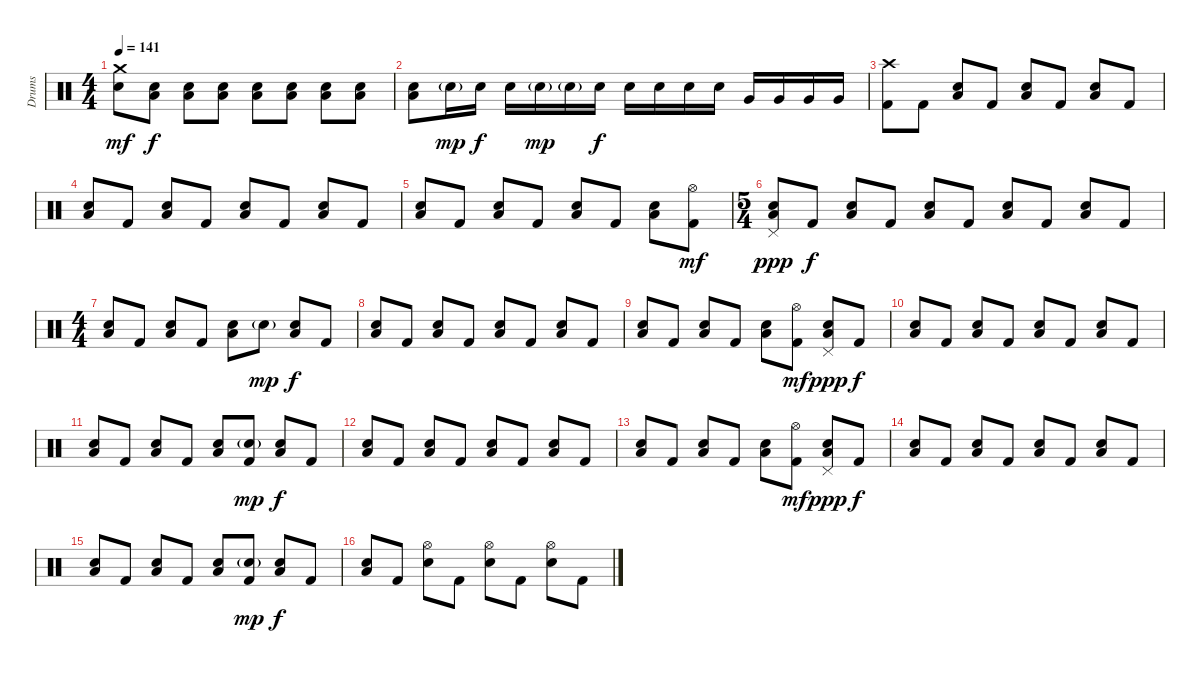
\track ("Drums" "Drums") {instrument percussion}
\staff {score}
\articulation defaults
\ts (4 4)
\tempo 141
\clef neutral
\ks c
("Crash medium (hit)" "Snare (hit) 2").8{dy mf} ("Snare (hit) 2" "Low Floor Tom (hit)").8{dy f} ("Snare (hit) 2" "Low Floor Tom (hit)").8 ("Snare (hit) 2" "Low Floor Tom (hit)").8 ("Snare (hit) 2" "Low Floor Tom (hit)").8 ("Snare (hit) 2" "Low Floor Tom (hit)").8 ("Snare (hit) 2" "Low Floor Tom (hit)").8 ("Snare (hit) 2" "Low Floor Tom (hit)").8 |
("Snare (hit) 2" "Low Floor Tom (hit)").8 "Snare (hit) 2"{g}.16{dy mp} "Snare (hit) 2".16{dy f} "Snare (hit) 2".16 "Snare (hit) 2"{g}.16{dy mp} "Snare (hit) 2"{g}.16 "Snare (hit) 2".16{dy f} "Snare (hit) 2".16 "Snare (hit) 2".16 "Snare (hit) 2".16 "Snare (hit) 2".16 "Very Low Tom (hit)".16 "Very Low Tom (hit)".16 "Very Low Tom (hit)".16 "Very Low Tom (hit)".16 |
("Crash high (hit)" "Kick (hit) 2").8 "Kick (hit) 2".8 ("Snare (hit) 2" "Low Floor Tom (hit)").8 "Kick (hit) 2".8 ("Snare (hit) 2" "Low Floor Tom (hit)").8 "Kick (hit) 2".8 ("Snare (hit) 2" "Low Floor Tom (hit)").8 "Kick (hit) 2".8 |
("Snare (hit) 2" "Low Floor Tom (hit)").8 "Kick (hit) 2".8 ("Snare (hit) 2" "Low Floor Tom (hit)").8 "Kick (hit) 2".8 ("Snare (hit) 2" "Low Floor Tom (hit)").8 "Kick (hit) 2".8 ("Snare (hit) 2" "Low Floor Tom (hit)").8 "Kick (hit) 2".8 |
("Snare (hit) 2" "Low Floor Tom (hit)").8 "Kick (hit) 2".8 ("Snare (hit) 2" "Low Floor Tom (hit)").8 "Kick (hit) 2".8 ("Snare (hit) 2" "Low Floor Tom (hit)").8 "Kick (hit) 2".8 ("Snare (hit) 2" "Low Floor Tom (hit)").8 ("Hi-Hat (open)" "Kick (hit) 2").8{dy mf} |
\ts (5 4)
("Pedal Hi-Hat (hit)" "Snare (hit) 2" "Low Floor Tom (hit)").8{dy ppp} "Kick (hit) 2".8{dy f} ("Snare (hit) 2" "Low Floor Tom (hit)").8 "Kick (hit) 2".8 ("Snare (hit) 2" "Low Floor Tom (hit)").8 "Kick (hit) 2".8 ("Snare (hit) 2" "Low Floor Tom (hit)").8 "Kick (hit) 2".8 ("Snare (hit) 2" "Low Floor Tom (hit)").8 "Kick (hit) 2".8 |
\ts (4 4)
("Snare (hit) 2" "Low Floor Tom (hit)").8 "Kick (hit) 2".8 ("Snare (hit) 2" "Low Floor Tom (hit)").8 "Kick (hit) 2".8 ("Snare (hit) 2" "Low Floor Tom (hit)").8 "Snare (hit) 2"{g}.8{dy mp} ("Snare (hit) 2" "Low Floor Tom (hit)").8{dy f} "Kick (hit) 2".8 |
("Snare (hit) 2" "Low Floor Tom (hit)").8 "Kick (hit) 2".8 ("Snare (hit) 2" "Low Floor Tom (hit)").8 "Kick (hit) 2".8 ("Snare (hit) 2" "Low Floor Tom (hit)").8 "Kick (hit) 2".8 ("Snare (hit) 2" "Low Floor Tom (hit)").8 "Kick (hit) 2".8 |
("Snare (hit) 2" "Low Floor Tom (hit)").8 "Kick (hit) 2".8 ("Snare (hit) 2" "Low Floor Tom (hit)").8 "Kick (hit) 2".8 ("Snare (hit) 2" "Low Floor Tom (hit)").8 ("Hi-Hat (open)" "Kick (hit) 2").8{dy mf} ("Pedal Hi-Hat (hit)" "Snare (hit) 2" "Low Floor Tom (hit)").8{dy ppp} "Kick (hit) 2".8{dy f} |
("Snare (hit) 2" "Low Floor Tom (hit)").8 "Kick (hit) 2".8 ("Snare (hit) 2" "Low Floor Tom (hit)").8 "Kick (hit) 2".8 ("Snare (hit) 2" "Low Floor Tom (hit)").8 "Kick (hit) 2".8 ("Snare (hit) 2" "Low Floor Tom (hit)").8 "Kick (hit) 2".8 |
("Snare (hit) 2" "Low Floor Tom (hit)").8 "Kick (hit) 2".8 ("Snare (hit) 2" "Low Floor Tom (hit)").8 "Kick (hit) 2".8 ("Snare (hit) 2" "Low Floor Tom (hit)").8 ("Snare (hit) 2"{g} "Kick (hit) 2").8{dy mp} ("Snare (hit) 2" "Low Floor Tom (hit)").8{dy f} "Kick (hit) 2".8 |
("Snare (hit) 2" "Low Floor Tom (hit)").8 "Kick (hit) 2".8 ("Snare (hit) 2" "Low Floor Tom (hit)").8 "Kick (hit) 2".8 ("Snare (hit) 2" "Low Floor Tom (hit)").8 "Kick (hit) 2".8 ("Snare (hit) 2" "Low Floor Tom (hit)").8 "Kick (hit) 2".8 |
("Snare (hit) 2" "Low Floor Tom (hit)").8 "Kick (hit) 2".8 ("Snare (hit) 2" "Low Floor Tom (hit)").8 "Kick (hit) 2".8 ("Snare (hit) 2" "Low Floor Tom (hit)").8 ("Hi-Hat (open)" "Kick (hit) 2").8{dy mf} ("Pedal Hi-Hat (hit)" "Snare (hit) 2" "Low Floor Tom (hit)").8{dy ppp} "Kick (hit) 2".8{dy f} |
("Snare (hit) 2" "Low Floor Tom (hit)").8 "Kick (hit) 2".8 ("Snare (hit) 2" "Low Floor Tom (hit)").8 "Kick (hit) 2".8 ("Snare (hit) 2" "Low Floor Tom (hit)").8 "Kick (hit) 2".8 ("Snare (hit) 2" "Low Floor Tom (hit)").8 "Kick (hit) 2".8 |
("Snare (hit) 2" "Low Floor Tom (hit)").8 "Kick (hit) 2".8 ("Snare (hit) 2" "Low Floor Tom (hit)").8 "Kick (hit) 2".8 ("Snare (hit) 2" "Low Floor Tom (hit)").8 ("Snare (hit) 2"{g} "Kick (hit) 2").8{dy mp} ("Snare (hit) 2" "Low Floor Tom (hit)").8{dy f} "Kick (hit) 2".8 |
("Snare (hit) 2" "Low Floor Tom (hit)").8 "Kick (hit) 2".8 ("Hi-Hat (open)" "Snare (hit) 2").8 "Kick (hit) 2".8 ("Hi-Hat (open)" "Snare (hit) 2").8 "Kick (hit) 2".8 ("Hi-Hat (open)" "Snare (hit) 2").8 "Kick (hit) 2".8
